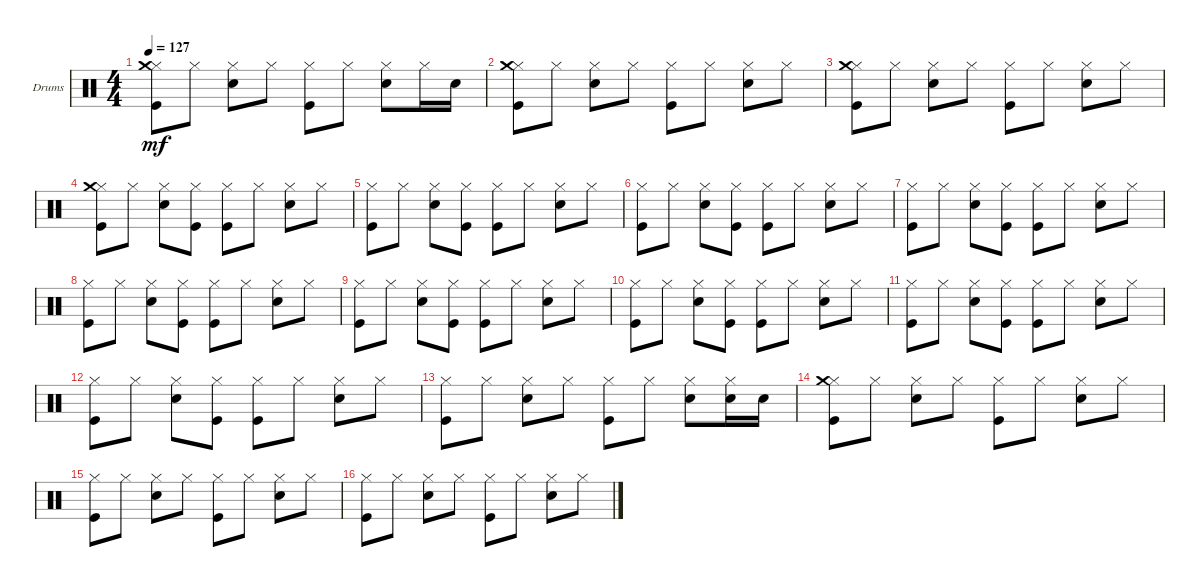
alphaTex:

\defaultSystemsLayout 4
\bracketExtendMode groupsimilarinstruments
\firstSystemTrackNameOrientation horizontal
\otherSystemsTrackNameOrientation horizontal
\track ("Drumkit" "Drums") {instrument percussion}
\staff {score}
\articulation defaults
\ts (4 4)
\tempo 127
\clef neutral
\ks c
("Kick (hit)" "Hi-Hat (closed)" "Crash medium (hit)").8{dy mf} "Hi-Hat (closed)".8 ("Snare (hit) 2" "Hi-Hat (closed)").8 "Hi-Hat (closed)".8 ("Kick (hit)" "Hi-Hat (closed)").8 "Hi-Hat (closed)".8 ("Snare (hit) 2" "Hi-Hat (closed)").8 "Hi-Hat (closed)".16 "Snare (hit) 2".16 |
("Kick (hit)" "Hi-Hat (closed)" "Crash medium (hit)").8 "Hi-Hat (closed)".8 ("Snare (hit) 2" "Hi-Hat (closed)").8 "Hi-Hat (closed)".8 ("Kick (hit)" "Hi-Hat (closed)").8 "Hi-Hat (closed)".8 ("Snare (hit) 2" "Hi-Hat (closed)").8 "Hi-Hat (closed)".8 |
("Kick (hit)" "Hi-Hat (closed)" "Crash medium (hit)").8 "Hi-Hat (closed)".8 ("Snare (hit) 2" "Hi-Hat (closed)").8 "Hi-Hat (closed)".8 ("Kick (hit)" "Hi-Hat (closed)").8 "Hi-Hat (closed)".8 ("Snare (hit) 2" "Hi-Hat (closed)").8 "Hi-Hat (closed)".8 |
("Hi-Hat (closed)" "Kick (hit)" "Crash medium (hit)").8 "Hi-Hat (closed)".8 ("Snare (hit) 2" "Hi-Hat (closed)").8 ("Kick (hit)" "Hi-Hat (closed)").8 ("Kick (hit)" "Hi-Hat (closed)").8 "Hi-Hat (closed)".8 ("Snare (hit) 2" "Hi-Hat (closed)").8 "Hi-Hat (closed)".8 |
("Hi-Hat (closed)" "Kick (hit)").8 "Hi-Hat (closed)".8 ("Snare (hit) 2" "Hi-Hat (closed)").8 ("Kick (hit)" "Hi-Hat (closed)").8 ("Kick (hit)" "Hi-Hat (closed)").8 "Hi-Hat (closed)".8 ("Snare (hit) 2" "Hi-Hat (closed)").8 "Hi-Hat (closed)".8 |
("Hi-Hat (closed)" "Kick (hit)").8 "Hi-Hat (closed)".8 ("Snare (hit) 2" "Hi-Hat (closed)").8 ("Kick (hit)" "Hi-Hat (closed)").8 ("Kick (hit)" "Hi-Hat (closed)").8 "Hi-Hat (closed)".8 ("Snare (hit) 2" "Hi-Hat (closed)").8 "Hi-Hat (closed)".8 |
("Hi-Hat (closed)" "Kick (hit)").8 "Hi-Hat (closed)".8 ("Snare (hit) 2" "Hi-Hat (closed)").8 ("Kick (hit)" "Hi-Hat (closed)").8 ("Kick (hit)" "Hi-Hat (closed)").8 "Hi-Hat (closed)".8 ("Snare (hit) 2" "Hi-Hat (closed)").8 "Hi-Hat (closed)".8 |
("Hi-Hat (closed)" "Kick (hit)").8 "Hi-Hat (closed)".8 ("Snare (hit) 2" "Hi-Hat (closed)").8 ("Kick (hit)" "Hi-Hat (closed)").8 ("Kick (hit)" "Hi-Hat (closed)").8 "Hi-Hat (closed)".8 ("Snare (hit) 2" "Hi-Hat (closed)").8 "Hi-Hat (closed)".8 |
("Hi-Hat (closed)" "Kick (hit)").8 "Hi-Hat (closed)".8 ("Snare (hit) 2" "Hi-Hat (closed)").8 ("Kick (hit)" "Hi-Hat (closed)").8 ("Kick (hit)" "Hi-Hat (closed)").8 "Hi-Hat (closed)".8 ("Snare (hit) 2" "Hi-Hat (closed)").8 "Hi-Hat (closed)".8 |
("Hi-Hat (closed)" "Kick (hit)").8 "Hi-Hat (closed)".8 ("Snare (hit) 2" "Hi-Hat (closed)").8 ("Kick (hit)" "Hi-Hat (closed)").8 ("Kick (hit)" "Hi-Hat (closed)").8 "Hi-Hat (closed)".8 ("Snare (hit) 2" "Hi-Hat (closed)").8 "Hi-Hat (closed)".8 |
("Hi-Hat (closed)" "Kick (hit)").8 "Hi-Hat (closed)".8 ("Snare (hit) 2" "Hi-Hat (closed)").8 ("Kick (hit)" "Hi-Hat (closed)").8 ("Kick (hit)" "Hi-Hat (closed)").8 "Hi-Hat (closed)".8 ("Snare (hit) 2" "Hi-Hat (closed)").8 "Hi-Hat (closed)".8 |
("Hi-Hat (closed)" "Kick (hit)").8 "Hi-Hat (closed)".8 ("Snare (hit) 2" "Hi-Hat (closed)").8 ("Kick (hit)" "Hi-Hat (closed)").8 ("Kick (hit)" "Hi-Hat (closed)").8 "Hi-Hat (closed)".8 ("Snare (hit) 2" "Hi-Hat (closed)").8 "Hi-Hat (closed)".8 |
("Hi-Hat (closed)" "Kick (hit)").8 "Hi-Hat (closed)".8 ("Snare (hit) 2" "Hi-Hat (closed)").8 "Hi-Hat (closed)".8 ("Kick (hit)" "Hi-Hat (closed)").8 "Hi-Hat (closed)".8 ("Snare (hit) 2" "Hi-Hat (closed)").8 ("Snare (hit) 2" "Hi-Hat (closed)").16 "Snare (hit) 2".16 |
("Kick (hit)" "Hi-Hat (closed)" "Crash medium (hit)").8 "Hi-Hat (closed)".8 ("Snare (hit) 2" "Hi-Hat (closed)").8 "Hi-Hat (closed)".8 ("Kick (hit)" "Hi-Hat (closed)").8 "Hi-Hat (closed)".8 ("Snare (hit) 2" "Hi-Hat (closed)").8 "Hi-Hat (closed)".8 |
("Kick (hit)" "Hi-Hat (closed)").8 "Hi-Hat (closed)".8 ("Snare (hit) 2" "Hi-Hat (closed)").8 "Hi-Hat (closed)".8 ("Kick (hit)" "Hi-Hat (closed)").8 "Hi-Hat (closed)".8 ("Snare (hit) 2" "Hi-Hat (closed)").8 "Hi-Hat (closed)".8 |
("Kick (hit)" "Hi-Hat (closed)").8 "Hi-Hat (closed)".8 ("Snare (hit) 2" "Hi-Hat (closed)").8 "Hi-Hat (closed)".8 ("Kick (hit)" "Hi-Hat (closed)").8 "Hi-Hat (closed)".8 ("Snare (hit) 2" "Hi-Hat (closed)").8 "Hi-Hat (closed)".8
